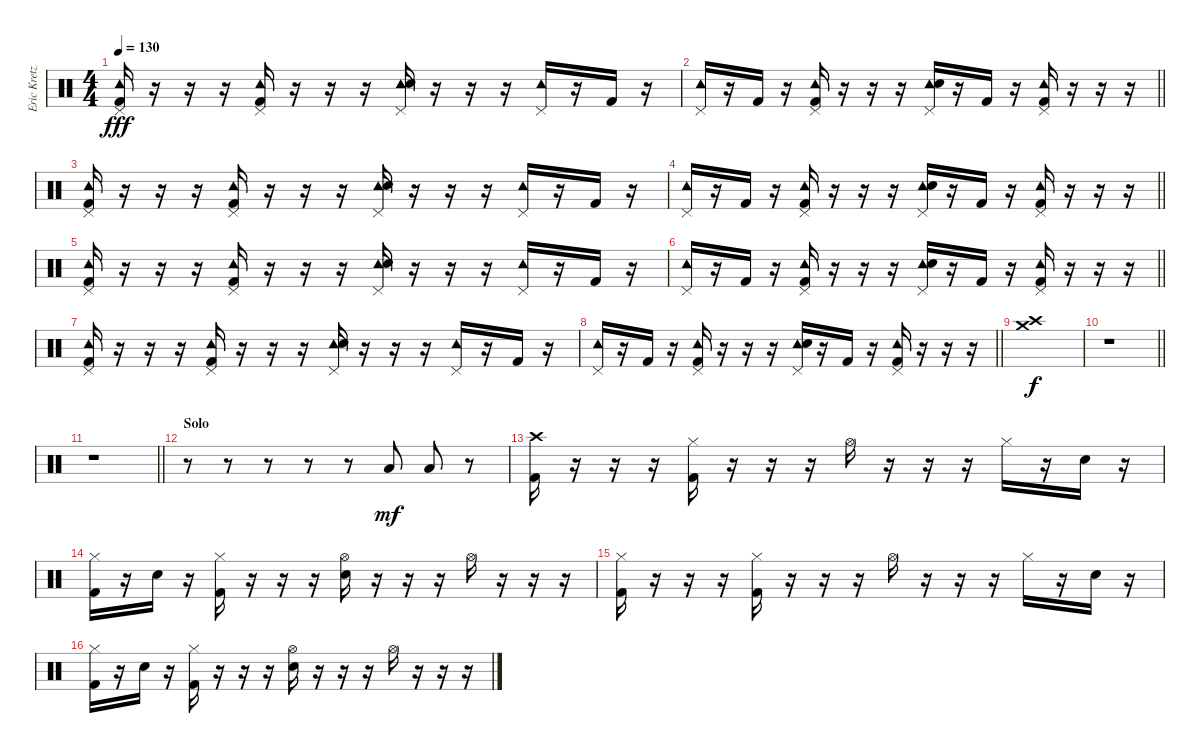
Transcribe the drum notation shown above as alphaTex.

\track ("Eric Kretz (Drums)" "Eric Kretz") {instrument percussion}
\staff {score}
\articulation defaults
\ts (4 4)
\tempo 130
\clef neutral
\ks c
("Pedal Hi-Hat (hit)" "Tambourine (hit)" "Kick (hit) 2").16{dy fff} r.16 r.16 r.16 ("Pedal Hi-Hat (hit)" "Tambourine (hit)" "Kick (hit) 2").16 r.16 r.16 r.16 ("Pedal Hi-Hat (hit)" "Tambourine (hit)" "Electric Snare (hit)").16 r.16 r.16 r.16 ("Pedal Hi-Hat (hit)" "Tambourine (hit)").16 r.16 "Kick (hit) 2".16 r.16 |
\barLineRight lightlight
("Pedal Hi-Hat (hit)" "Tambourine (hit)").16 r.16 "Kick (hit) 2".16 r.16 ("Pedal Hi-Hat (hit)" "Tambourine (hit)" "Kick (hit) 2").16 r.16 r.16 r.16 ("Pedal Hi-Hat (hit)" "Tambourine (hit)" "Electric Snare (hit)").16 r.16 "Kick (hit) 2".16 r.16 ("Pedal Hi-Hat (hit)" "Tambourine (hit)" "Kick (hit) 2").16 r.16 r.16 r.16 |
("Pedal Hi-Hat (hit)" "Tambourine (hit)" "Kick (hit) 2").16 r.16 r.16 r.16 ("Pedal Hi-Hat (hit)" "Tambourine (hit)" "Kick (hit) 2").16 r.16 r.16 r.16 ("Pedal Hi-Hat (hit)" "Tambourine (hit)" "Electric Snare (hit)").16 r.16 r.16 r.16 ("Pedal Hi-Hat (hit)" "Tambourine (hit)").16 r.16 "Kick (hit) 2".16 r.16 |
\barLineRight lightlight
("Pedal Hi-Hat (hit)" "Tambourine (hit)").16 r.16 "Kick (hit) 2".16 r.16 ("Pedal Hi-Hat (hit)" "Tambourine (hit)" "Kick (hit) 2").16 r.16 r.16 r.16 ("Pedal Hi-Hat (hit)" "Tambourine (hit)" "Electric Snare (hit)").16 r.16 "Kick (hit) 2".16 r.16 ("Pedal Hi-Hat (hit)" "Tambourine (hit)" "Kick (hit) 2").16 r.16 r.16 r.16 |
("Pedal Hi-Hat (hit)" "Tambourine (hit)" "Kick (hit) 2").16 r.16 r.16 r.16 ("Pedal Hi-Hat (hit)" "Tambourine (hit)" "Kick (hit) 2").16 r.16 r.16 r.16 ("Pedal Hi-Hat (hit)" "Tambourine (hit)" "Electric Snare (hit)").16 r.16 r.16 r.16 ("Pedal Hi-Hat (hit)" "Tambourine (hit)").16 r.16 "Kick (hit) 2".16 r.16 |
\barLineRight lightlight
("Pedal Hi-Hat (hit)" "Tambourine (hit)").16 r.16 "Kick (hit) 2".16 r.16 ("Pedal Hi-Hat (hit)" "Tambourine (hit)" "Kick (hit) 2").16 r.16 r.16 r.16 ("Pedal Hi-Hat (hit)" "Tambourine (hit)" "Electric Snare (hit)").16 r.16 "Kick (hit) 2".16 r.16 ("Pedal Hi-Hat (hit)" "Tambourine (hit)" "Kick (hit) 2").16 r.16 r.16 r.16 |
("Pedal Hi-Hat (hit)" "Tambourine (hit)" "Kick (hit) 2").16 r.16 r.16 r.16 ("Pedal Hi-Hat (hit)" "Tambourine (hit)" "Kick (hit) 2").16 r.16 r.16 r.16 ("Pedal Hi-Hat (hit)" "Tambourine (hit)" "Electric Snare (hit)").16 r.16 r.16 r.16 ("Pedal Hi-Hat (hit)" "Tambourine (hit)").16 r.16 "Kick (hit) 2".16 r.16 |
\barLineRight lightlight
("Pedal Hi-Hat (hit)" "Tambourine (hit)").16 r.16 "Kick (hit) 2".16 r.16 ("Pedal Hi-Hat (hit)" "Tambourine (hit)" "Kick (hit) 2").16 r.16 r.16 r.16 ("Pedal Hi-Hat (hit)" "Tambourine (hit)" "Electric Snare (hit)").16 r.16 "Kick (hit) 2".16 r.16 ("Pedal Hi-Hat (hit)" "Tambourine (hit)" "Kick (hit) 2").16 r.16 r.16 r.16 |
("Crash high (hit)" "Crash medium (hit)").1{dy f} |
\barLineRight lightlight
r.1 |
\barLineRight lightlight
r.1 |
\section ("" "Solo")
r.8 r.8 r.8 r.8 r.8 "Low Tom (hit)".8{dy mf} "Low Floor Tom (hit)".8 r.8 |
("Crash high (hit)" "Kick (hit) 2").16 r.16 r.16 r.16 ("Hi-Hat (closed)" "Kick (hit) 2").16 r.16 r.16 r.16 "Hi-Hat (open)".16 r.16 r.16 r.16 "Hi-Hat (closed)".16 r.16 "Electric Snare (hit)".16 r.16 |
("Hi-Hat (closed)" "Kick (hit) 2").16 r.16 "Electric Snare (hit)".16 r.16 ("Hi-Hat (closed)" "Kick (hit) 2").16 r.16 r.16 r.16 ("Hi-Hat (open)" "Electric Snare (hit)").16 r.16 r.16 r.16 "Hi-Hat (open)".16 r.16 r.16 r.16 |
("Hi-Hat (closed)" "Kick (hit) 2").16 r.16 r.16 r.16 ("Hi-Hat (closed)" "Kick (hit) 2").16 r.16 r.16 r.16 "Hi-Hat (open)".16 r.16 r.16 r.16 "Hi-Hat (closed)".16 r.16 "Electric Snare (hit)".16 r.16 |
("Hi-Hat (closed)" "Kick (hit) 2").16 r.16 "Electric Snare (hit)".16 r.16 ("Hi-Hat (closed)" "Kick (hit) 2").16 r.16 r.16 r.16 ("Hi-Hat (open)" "Electric Snare (hit)").16 r.16 r.16 r.16 "Hi-Hat (open)".16 r.16 r.16 r.16
